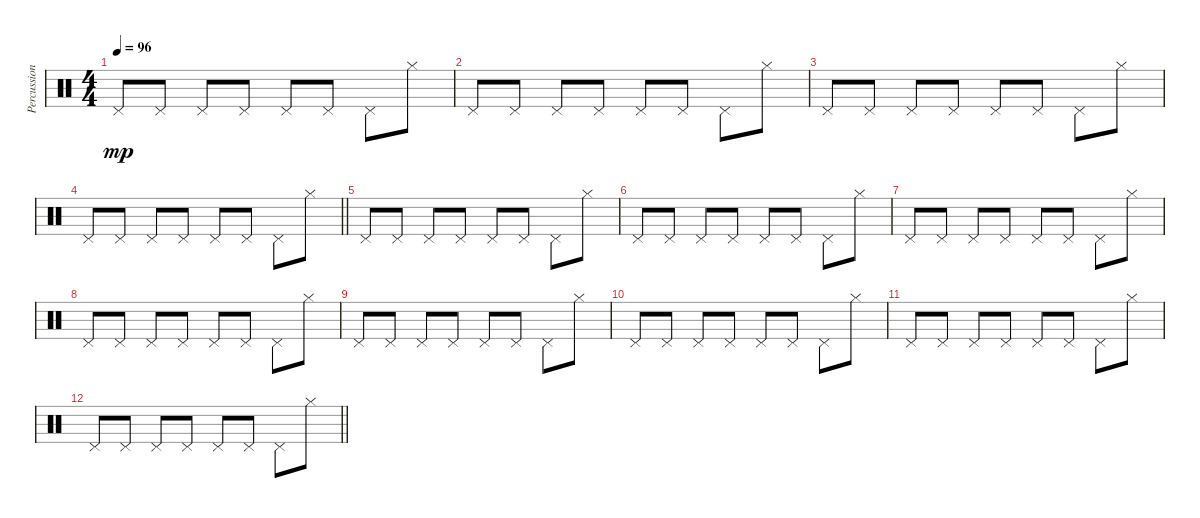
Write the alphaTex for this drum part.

\track ("Percussion" "Percussion") {instrument percussion}
\staff {score}
\articulation defaults
\ts (4 4)
\tempo 96
\clef neutral
\ks c "Pedal Hi-Hat (hit)".8{dy mp} "Pedal Hi-Hat (hit)".8 "Pedal Hi-Hat (hit)".8 "Pedal Hi-Hat (hit)".8 "Pedal Hi-Hat (hit)".8 "Pedal Hi-Hat (hit)".8 "Pedal Hi-Hat (hit)".8 "Hi-Hat (closed)".8
|
"Pedal Hi-Hat (hit)".8 "Pedal Hi-Hat (hit)".8 "Pedal Hi-Hat (hit)".8 "Pedal Hi-Hat (hit)".8 "Pedal Hi-Hat (hit)".8 "Pedal Hi-Hat (hit)".8 "Pedal Hi-Hat (hit)".8 "Hi-Hat (closed)".8 |
"Pedal Hi-Hat (hit)".8 "Pedal Hi-Hat (hit)".8 "Pedal Hi-Hat (hit)".8 "Pedal Hi-Hat (hit)".8 "Pedal Hi-Hat (hit)".8 "Pedal Hi-Hat (hit)".8 "Pedal Hi-Hat (hit)".8 "Hi-Hat (closed)".8 |
\barLineRight lightlight "Pedal Hi-Hat (hit)".8 "Pedal Hi-Hat (hit)".8 "Pedal Hi-Hat (hit)".8 "Pedal Hi-Hat (hit)".8 "Pedal Hi-Hat (hit)".8 "Pedal Hi-Hat (hit)".8 "Pedal Hi-Hat (hit)".8 "Hi-Hat (closed)".8
|
"Pedal Hi-Hat (hit)".8 "Pedal Hi-Hat (hit)".8 "Pedal Hi-Hat (hit)".8 "Pedal Hi-Hat (hit)".8 "Pedal Hi-Hat (hit)".8 "Pedal Hi-Hat (hit)".8 "Pedal Hi-Hat (hit)".8 "Hi-Hat (closed)".8 |
"Pedal Hi-Hat (hit)".8 "Pedal Hi-Hat (hit)".8 "Pedal Hi-Hat (hit)".8 "Pedal Hi-Hat (hit)".8 "Pedal Hi-Hat (hit)".8 "Pedal Hi-Hat (hit)".8 "Pedal Hi-Hat (hit)".8 "Hi-Hat (closed)".8 |
"Pedal Hi-Hat (hit)".8 "Pedal Hi-Hat (hit)".8 "Pedal Hi-Hat (hit)".8 "Pedal Hi-Hat (hit)".8 "Pedal Hi-Hat (hit)".8 "Pedal Hi-Hat (hit)".8 "Pedal Hi-Hat (hit)".8 "Hi-Hat (closed)".8 |
"Pedal Hi-Hat (hit)".8 "Pedal Hi-Hat (hit)".8 "Pedal Hi-Hat (hit)".8 "Pedal Hi-Hat (hit)".8 "Pedal Hi-Hat (hit)".8 "Pedal Hi-Hat (hit)".8 "Pedal Hi-Hat (hit)".8 "Hi-Hat (closed)".8 |
"Pedal Hi-Hat (hit)".8 "Pedal Hi-Hat (hit)".8 "Pedal Hi-Hat (hit)".8 "Pedal Hi-Hat (hit)".8 "Pedal Hi-Hat (hit)".8 "Pedal Hi-Hat (hit)".8 "Pedal Hi-Hat (hit)".8 "Hi-Hat (closed)".8 |
"Pedal Hi-Hat (hit)".8 "Pedal Hi-Hat (hit)".8 "Pedal Hi-Hat (hit)".8 "Pedal Hi-Hat (hit)".8 "Pedal Hi-Hat (hit)".8 "Pedal Hi-Hat (hit)".8 "Pedal Hi-Hat (hit)".8 "Hi-Hat (closed)".8 |
"Pedal Hi-Hat (hit)".8 "Pedal Hi-Hat (hit)".8 "Pedal Hi-Hat (hit)".8 "Pedal Hi-Hat (hit)".8 "Pedal Hi-Hat (hit)".8 "Pedal Hi-Hat (hit)".8 "Pedal Hi-Hat (hit)".8 "Hi-Hat (closed)".8 |
\barLineRight lightlight "Pedal Hi-Hat (hit)".8 "Pedal Hi-Hat (hit)".8 "Pedal Hi-Hat (hit)".8 "Pedal Hi-Hat (hit)".8 "Pedal Hi-Hat (hit)".8 "Pedal Hi-Hat (hit)".8 "Pedal Hi-Hat (hit)".8 "Hi-Hat (closed)".8
